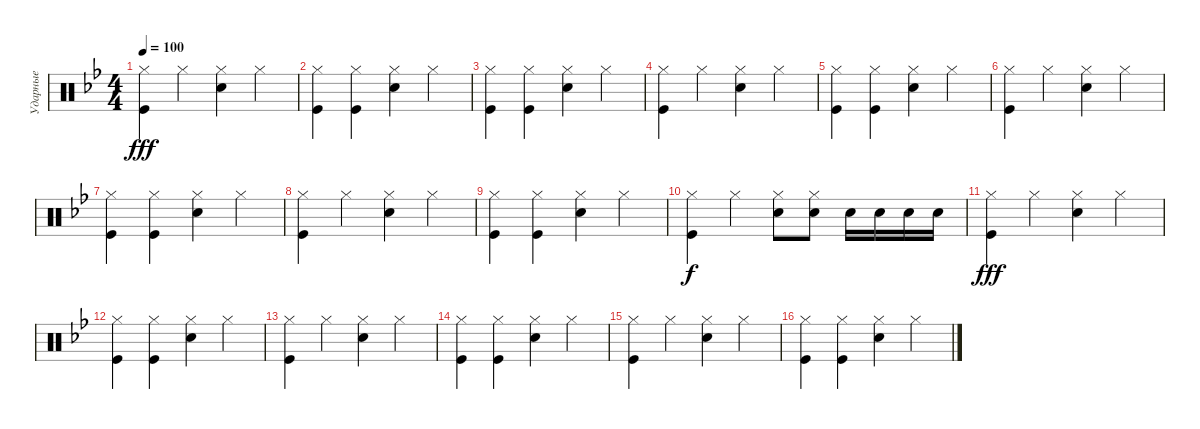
\track ("Ударные" "Ударные") {instrument percussion}
\staff {score}
\articulation defaults
\ts (4 4)
\tempo 100
\clef neutral
\ks gminor
("Hi-Hat (closed)" "Kick (hit)").4{dy fff} "Hi-Hat (closed)".4 ("Hi-Hat (closed)" "Snare (hit) 2").4 "Hi-Hat (closed)".4 |
("Kick (hit)" "Hi-Hat (closed)").4 ("Hi-Hat (closed)" "Kick (hit)").4 ("Hi-Hat (closed)" "Snare (hit) 2").4 "Hi-Hat (closed)".4 |
("Kick (hit)" "Hi-Hat (closed)").4 ("Hi-Hat (closed)" "Kick (hit)").4 ("Hi-Hat (closed)" "Snare (hit) 2").4 "Hi-Hat (closed)".4 |
("Hi-Hat (closed)" "Kick (hit)").4 "Hi-Hat (closed)".4 ("Hi-Hat (closed)" "Snare (hit) 2").4 "Hi-Hat (closed)".4 |
("Kick (hit)" "Hi-Hat (closed)").4 ("Hi-Hat (closed)" "Kick (hit)").4 ("Hi-Hat (closed)" "Snare (hit) 2").4 "Hi-Hat (closed)".4 |
("Hi-Hat (closed)" "Kick (hit)").4 "Hi-Hat (closed)".4 ("Hi-Hat (closed)" "Snare (hit) 2").4 "Hi-Hat (closed)".4 |
("Kick (hit)" "Hi-Hat (closed)").4 ("Hi-Hat (closed)" "Kick (hit)").4 ("Hi-Hat (closed)" "Snare (hit) 2").4 "Hi-Hat (closed)".4 |
("Hi-Hat (closed)" "Kick (hit)").4 "Hi-Hat (closed)".4 ("Hi-Hat (closed)" "Snare (hit) 2").4 "Hi-Hat (closed)".4 |
("Kick (hit)" "Hi-Hat (closed)").4 ("Hi-Hat (closed)" "Kick (hit)").4 ("Hi-Hat (closed)" "Snare (hit) 2").4 "Hi-Hat (closed)".4 |
("Kick (hit)" "Hi-Hat (closed)").4{dy f} "Hi-Hat (closed)".4 ("Snare (hit) 2" "Hi-Hat (closed)").8 ("Snare (hit) 2" "Hi-Hat (closed)").8 "Snare (hit) 2".16 "Snare (hit) 2".16 "Snare (hit) 2".16 "Snare (hit) 2".16 |
("Hi-Hat (closed)" "Kick (hit)").4{dy fff} "Hi-Hat (closed)".4 ("Hi-Hat (closed)" "Snare (hit) 2").4 "Hi-Hat (closed)".4 |
("Kick (hit)" "Hi-Hat (closed)").4 ("Hi-Hat (closed)" "Kick (hit)").4 ("Hi-Hat (closed)" "Snare (hit) 2").4 "Hi-Hat (closed)".4 |
("Hi-Hat (closed)" "Kick (hit)").4 "Hi-Hat (closed)".4 ("Hi-Hat (closed)" "Snare (hit) 2").4 "Hi-Hat (closed)".4 |
("Kick (hit)" "Hi-Hat (closed)").4 ("Hi-Hat (closed)" "Kick (hit)").4 ("Hi-Hat (closed)" "Snare (hit) 2").4 "Hi-Hat (closed)".4 |
("Hi-Hat (closed)" "Kick (hit)").4 "Hi-Hat (closed)".4 ("Hi-Hat (closed)" "Snare (hit) 2").4 "Hi-Hat (closed)".4 |
("Kick (hit)" "Hi-Hat (closed)").4 ("Hi-Hat (closed)" "Kick (hit)").4 ("Hi-Hat (closed)" "Snare (hit) 2").4 "Hi-Hat (closed)".4
